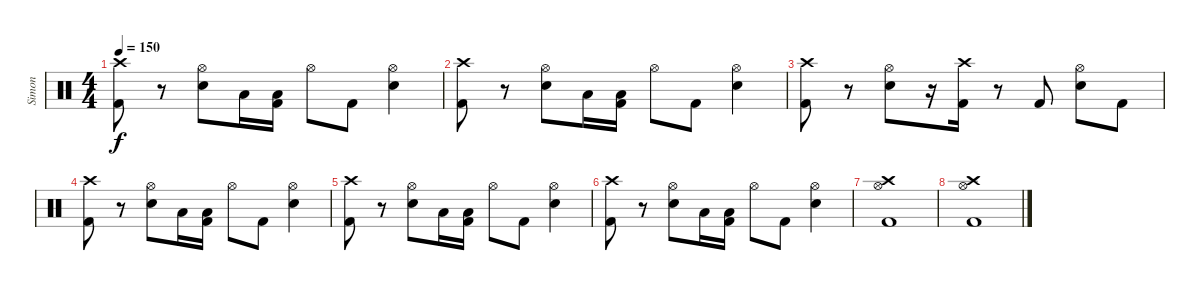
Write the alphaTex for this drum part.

\track ("Simon" "Simon") {instrument percussion}
\staff {score}
\articulation defaults
\ts (4 4)
\tempo 150
\clef neutral
\ks c
("Crash high (hit)" "Kick (hit) 2").8{dy f} r.8 ("Hi-Hat (open)" "Electric Snare (hit)").8 "Low Tom (hit)".16 ("Kick (hit) 2" "Low Tom (hit)").16 "Hi-Hat (open)".8 "Kick (hit) 2".8 ("Hi-Hat (open)" "Electric Snare (hit)").4 |
("Crash high (hit)" "Kick (hit) 2").8 r.8 ("Hi-Hat (open)" "Electric Snare (hit)").8 "Low Tom (hit)".16 ("Kick (hit) 2" "Low Tom (hit)").16 "Hi-Hat (open)".8 "Kick (hit) 2".8 ("Hi-Hat (open)" "Electric Snare (hit)").4 |
("Crash high (hit)" "Kick (hit) 2").8 r.8 ("Hi-Hat (open)" "Electric Snare (hit)").8 r.16 ("Crash high (hit)" "Kick (hit) 2").16 r.8 "Kick (hit) 2".8 ("Hi-Hat (open)" "Electric Snare (hit)").8 "Kick (hit) 2".8 |
("Crash high (hit)" "Kick (hit) 2").8 r.8 ("Hi-Hat (open)" "Electric Snare (hit)").8 "Low Tom (hit)".16 ("Kick (hit) 2" "Low Tom (hit)").16 "Hi-Hat (open)".8 "Kick (hit) 2".8 ("Hi-Hat (open)" "Electric Snare (hit)").4 |
("Crash high (hit)" "Kick (hit) 2").8 r.8 ("Hi-Hat (open)" "Electric Snare (hit)").8 "Low Tom (hit)".16 ("Kick (hit) 2" "Low Tom (hit)").16 "Hi-Hat (open)".8 "Kick (hit) 2".8 ("Hi-Hat (open)" "Electric Snare (hit)").4 |
("Crash high (hit)" "Kick (hit) 2").8 r.8 ("Hi-Hat (open)" "Electric Snare (hit)").8 "Low Tom (hit)".16 ("Kick (hit) 2" "Low Tom (hit)").16 "Hi-Hat (open)".8 "Kick (hit) 2".8 ("Hi-Hat (open)" "Electric Snare (hit)").4 |
("Crash high (hit)" "Hi-Hat (open)" "Kick (hit) 2").1 |
("Crash high (hit)" "Hi-Hat (open)" "Kick (hit) 2").1
